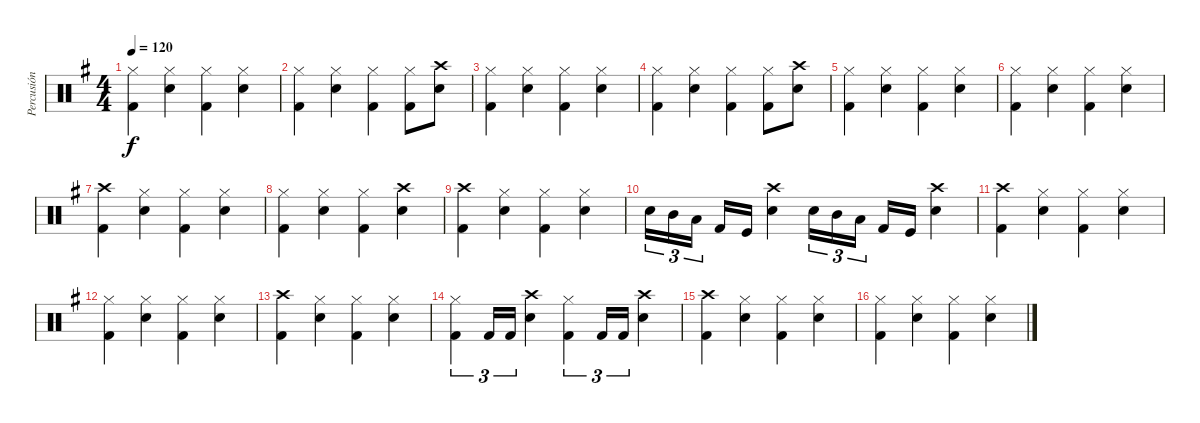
\track ("Percusión" "Percusión") {instrument percussion}
\staff {score}
\articulation defaults
\ts (4 4)
\tempo 120
\clef neutral
\ks g
("Hi-Hat (closed)" "Kick (hit) 2").4{dy f} ("Hi-Hat (closed)" "Snare (hit) 2").4 ("Hi-Hat (closed)" "Kick (hit) 2").4 ("Hi-Hat (closed)" "Snare (hit) 2").4 |
("Hi-Hat (closed)" "Kick (hit) 2").4 ("Hi-Hat (closed)" "Snare (hit) 2").4 ("Hi-Hat (closed)" "Kick (hit) 2").4 ("Hi-Hat (closed)" "Kick (hit) 2").8 ("Crash high (hit)" "Snare (hit) 2").8 |
("Hi-Hat (closed)" "Kick (hit) 2").4 ("Hi-Hat (closed)" "Snare (hit) 2").4 ("Hi-Hat (closed)" "Kick (hit) 2").4 ("Hi-Hat (closed)" "Snare (hit) 2").4 |
("Hi-Hat (closed)" "Kick (hit) 2").4 ("Hi-Hat (closed)" "Snare (hit) 2").4 ("Hi-Hat (closed)" "Kick (hit) 2").4 ("Hi-Hat (closed)" "Kick (hit) 2").8 ("Crash high (hit)" "Snare (hit) 2").8 |
("Hi-Hat (closed)" "Kick (hit) 2").4 ("Hi-Hat (closed)" "Snare (hit) 2").4 ("Hi-Hat (closed)" "Kick (hit) 2").4 ("Hi-Hat (closed)" "Snare (hit) 2").4 |
("Hi-Hat (closed)" "Kick (hit) 2").4 ("Hi-Hat (closed)" "Snare (hit) 2").4 ("Hi-Hat (closed)" "Kick (hit) 2").4 ("Hi-Hat (closed)" "Snare (hit) 2").4 |
("Crash high (hit)" "Kick (hit) 2").4 ("Hi-Hat (closed)" "Snare (hit) 2").4 ("Hi-Hat (closed)" "Kick (hit) 2").4 ("Hi-Hat (closed)" "Snare (hit) 2").4 |
("Hi-Hat (closed)" "Kick (hit) 2").4 ("Hi-Hat (closed)" "Snare (hit) 2").4 ("Hi-Hat (closed)" "Kick (hit) 2").4 ("Crash high (hit)" "Snare (hit) 2").4 |
("Crash high (hit)" "Kick (hit) 2").4 ("Hi-Hat (closed)" "Snare (hit) 2").4 ("Hi-Hat (closed)" "Kick (hit) 2").4 ("Hi-Hat (closed)" "Snare (hit) 2").4 |
"Snare (hit) 2".16{tu (3 2)} "Mid Tom (hit)".16{tu (3 2)} "Low Floor Tom (hit)".16{tu (3 2) beam splitsecondary} "Kick (hit) 2".16 "Kick (hit)".16 ("Crash high (hit)" "Snare (hit) 2").4 "Snare (hit) 2".16{tu (3 2)} "Mid Tom (hit)".16{tu (3 2)} "Low Floor Tom (hit)".16{tu (3 2) beam splitsecondary} "Kick (hit) 2".16 "Kick (hit)".16 ("Crash high (hit)" "Snare (hit) 2").4 |
("Crash high (hit)" "Kick (hit) 2").4 ("Hi-Hat (closed)" "Snare (hit) 2").4 ("Hi-Hat (closed)" "Kick (hit) 2").4 ("Hi-Hat (closed)" "Snare (hit) 2").4 |
("Hi-Hat (closed)" "Kick (hit) 2").4 ("Hi-Hat (closed)" "Snare (hit) 2").4 ("Hi-Hat (closed)" "Kick (hit) 2").4 ("Hi-Hat (closed)" "Snare (hit) 2").4 |
("Crash high (hit)" "Kick (hit) 2").4 ("Hi-Hat (closed)" "Snare (hit) 2").4 ("Hi-Hat (closed)" "Kick (hit) 2").4 ("Hi-Hat (closed)" "Snare (hit) 2").4 |
("Hi-Hat (closed)" "Kick (hit) 2").4{tu (3 2)} "Kick (hit) 2".16{tu (3 2)} "Kick (hit) 2".16{tu (3 2)} ("Crash high (hit)" "Snare (hit) 2").4 ("Hi-Hat (closed)" "Kick (hit) 2").4{tu (3 2)} "Kick (hit) 2".16{tu (3 2)} "Kick (hit) 2".16{tu (3 2)} ("Crash high (hit)" "Snare (hit) 2").4 |
("Crash high (hit)" "Kick (hit) 2").4 ("Hi-Hat (closed)" "Snare (hit) 2").4 ("Hi-Hat (closed)" "Kick (hit) 2").4 ("Hi-Hat (closed)" "Snare (hit) 2").4 |
("Hi-Hat (closed)" "Kick (hit) 2").4 ("Hi-Hat (closed)" "Snare (hit) 2").4 ("Hi-Hat (closed)" "Kick (hit) 2").4 ("Hi-Hat (closed)" "Snare (hit) 2").4
